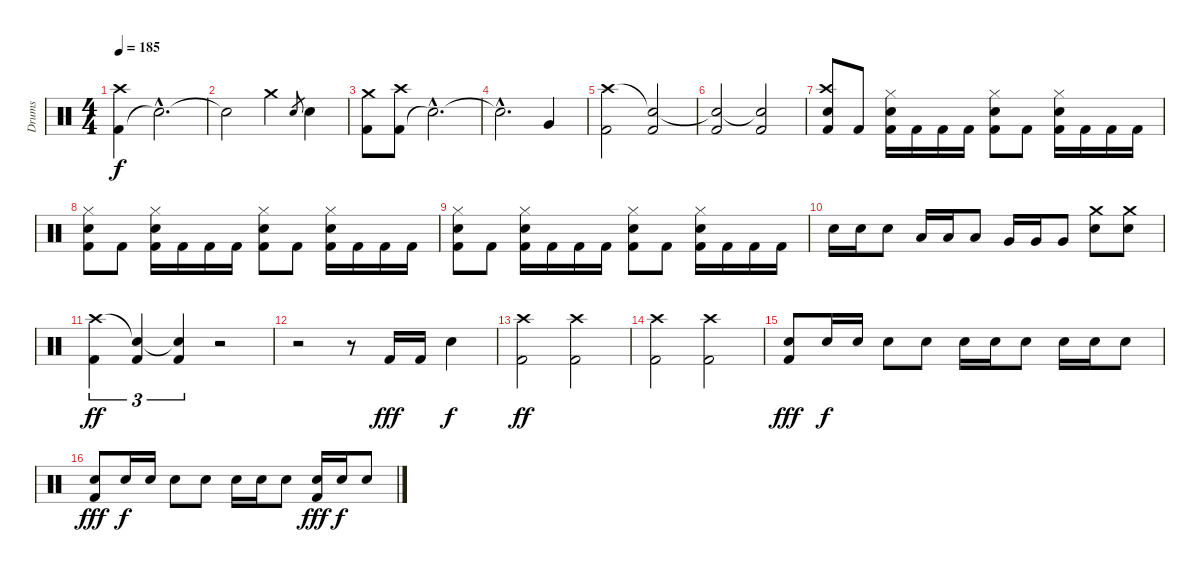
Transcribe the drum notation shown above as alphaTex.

\track ("Drums" "Drums") {instrument percussion}
\staff {score}
\articulation defaults
\ts (4 4)
\tempo 185
\clef neutral
\ks c
("Kick (hit) 2" "Crash high (hit)").4{dy f} "Snare (hit)"{hac t}.2{d} |
"Snare (hit)"{t}.2 "Crash medium (hit)".4 "Snare (hit) 2".8{gr} "Snare (hit) 2".4 |
("Kick (hit) 2" "Crash medium (hit)").8 ("Kick (hit) 2" "Crash high (hit)").8 "Snare (hit)"{hac t}.2{d} |
"Snare (hit)"{hac t}.2{d} "Very Low Tom (hit)".4 |
("Kick (hit) 2" "Crash high (hit)").2 ("Kick (hit) 2" "Snare (hit)"{t}).2 |
("Kick (hit) 2" "Snare (hit)"{t}).2 ("Kick (hit) 2" "Snare (hit)"{t}).2 |
("Kick (hit) 2" "Snare (hit) 2" "Crash high (hit)").8 "Kick (hit) 2".8 ("Kick (hit) 2" "Snare (hit) 2" "Hi-Hat (closed)").16 "Kick (hit) 2".16 "Kick (hit) 2".16 "Kick (hit) 2".16 ("Kick (hit) 2" "Snare (hit) 2" "Hi-Hat (closed)").8 "Kick (hit) 2".8 ("Kick (hit) 2" "Snare (hit) 2" "Hi-Hat (closed)").16 "Kick (hit) 2".16 "Kick (hit) 2".16 "Kick (hit) 2".16 |
("Kick (hit) 2" "Snare (hit) 2" "Hi-Hat (closed)").8 "Kick (hit) 2".8 ("Kick (hit) 2" "Snare (hit) 2" "Hi-Hat (closed)").16 "Kick (hit) 2".16 "Kick (hit) 2".16 "Kick (hit) 2".16 ("Kick (hit) 2" "Snare (hit) 2" "Hi-Hat (closed)").8 "Kick (hit) 2".8 ("Kick (hit) 2" "Snare (hit) 2" "Hi-Hat (closed)").16 "Kick (hit) 2".16 "Kick (hit) 2".16 "Kick (hit) 2".16 |
("Kick (hit) 2" "Snare (hit) 2" "Hi-Hat (closed)").8 "Kick (hit) 2".8 ("Kick (hit) 2" "Snare (hit) 2" "Hi-Hat (closed)").16 "Kick (hit) 2".16 "Kick (hit) 2".16 "Kick (hit) 2".16 ("Kick (hit) 2" "Snare (hit) 2" "Hi-Hat (closed)").8 "Kick (hit) 2".8 ("Kick (hit) 2" "Snare (hit) 2" "Hi-Hat (closed)").16 "Kick (hit) 2".16 "Kick (hit) 2".16 "Kick (hit) 2".16 |
"Snare (hit) 2".16 "Snare (hit) 2".16 "Snare (hit) 2".8 "Low Tom (hit)".16 "Low Tom (hit)".16 "Low Tom (hit)".8 "Very Low Tom (hit)".16 "Very Low Tom (hit)".16 "Very Low Tom (hit)".8 ("Snare (hit) 2" "Crash medium (hit)").8 ("Snare (hit) 2" "Crash medium (hit)").8 |
("Kick (hit) 2" "Crash high (hit)").4{tu (3 2) dy ff} ("Kick (hit) 2" "Snare (hit)"{t}).4{tu (3 2)} ("Kick (hit) 2" "Snare (hit)"{t}).4{tu (3 2)} r.2 |
r.2 r.8 "Kick (hit) 2".16{dy fff} "Kick (hit) 2".16 "Snare (hit) 2".4{dy f} |
("Kick (hit) 2" "Crash high (hit)").2{dy ff} ("Kick (hit) 2" "Crash high (hit)").2 |
("Kick (hit) 2" "Crash high (hit)").2 ("Kick (hit) 2" "Crash high (hit)").2 |
("Snare (hit) 2" "Kick (hit) 2").8{dy fff} "Snare (hit) 2".16{dy f} "Snare (hit) 2".16 "Snare (hit) 2".8 "Snare (hit) 2".8 "Snare (hit) 2".16 "Snare (hit) 2".16 "Snare (hit) 2".8 "Snare (hit) 2".16 "Snare (hit) 2".16 "Snare (hit) 2".8 |
("Snare (hit) 2" "Kick (hit) 2").8{dy fff} "Snare (hit) 2".16{dy f} "Snare (hit) 2".16 "Snare (hit) 2".8 "Snare (hit) 2".8 "Snare (hit) 2".16 "Snare (hit) 2".16 "Snare (hit) 2".8 ("Snare (hit) 2" "Kick (hit) 2").16{dy fff} "Snare (hit) 2".16{dy f} "Snare (hit) 2".8
